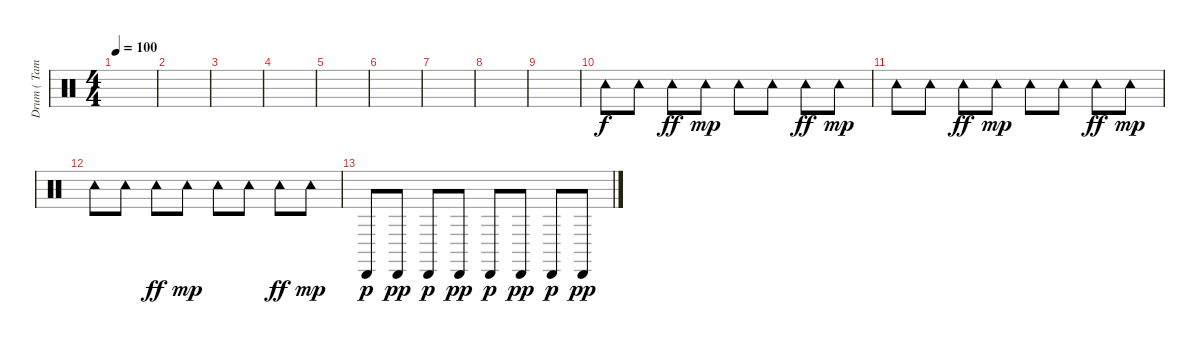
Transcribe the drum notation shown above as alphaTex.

\track ("Drum ( Tambourine )" "Drum ( Tam") {instrument percussion}
\staff {score}
\articulation defaults
\ts (4 4)
\tempo 100
\clef neutral
\ks c
|
|
|
|
|
|
|
|
|
"Tambourine (hit)".8 "Tambourine (hit)".8 "Tambourine (hit)".8{dy ff} "Tambourine (hit)".8{dy mp} "Tambourine (hit)".8 "Tambourine (hit)".8 "Tambourine (hit)".8{dy ff} "Tambourine (hit)".8{dy mp} |
"Tambourine (hit)".8 "Tambourine (hit)".8 "Tambourine (hit)".8{dy ff} "Tambourine (hit)".8{dy mp} "Tambourine (hit)".8 "Tambourine (hit)".8 "Tambourine (hit)".8{dy ff} "Tambourine (hit)".8{dy mp} |
"Tambourine (hit)".8 "Tambourine (hit)".8 "Tambourine (hit)".8{dy ff} "Tambourine (hit)".8{dy mp} "Tambourine (hit)".8 "Tambourine (hit)".8 "Tambourine (hit)".8{dy ff} "Tambourine (hit)".8{dy mp} |
"Cabasa (hit)".8{dy p} "Cabasa (hit)".8{dy pp} "Cabasa (hit)".8{dy p} "Cabasa (hit)".8{dy pp} "Cabasa (hit)".8{dy p} "Cabasa (hit)".8{dy pp} "Cabasa (hit)".8{dy p} "Cabasa (hit)".8{dy pp}
